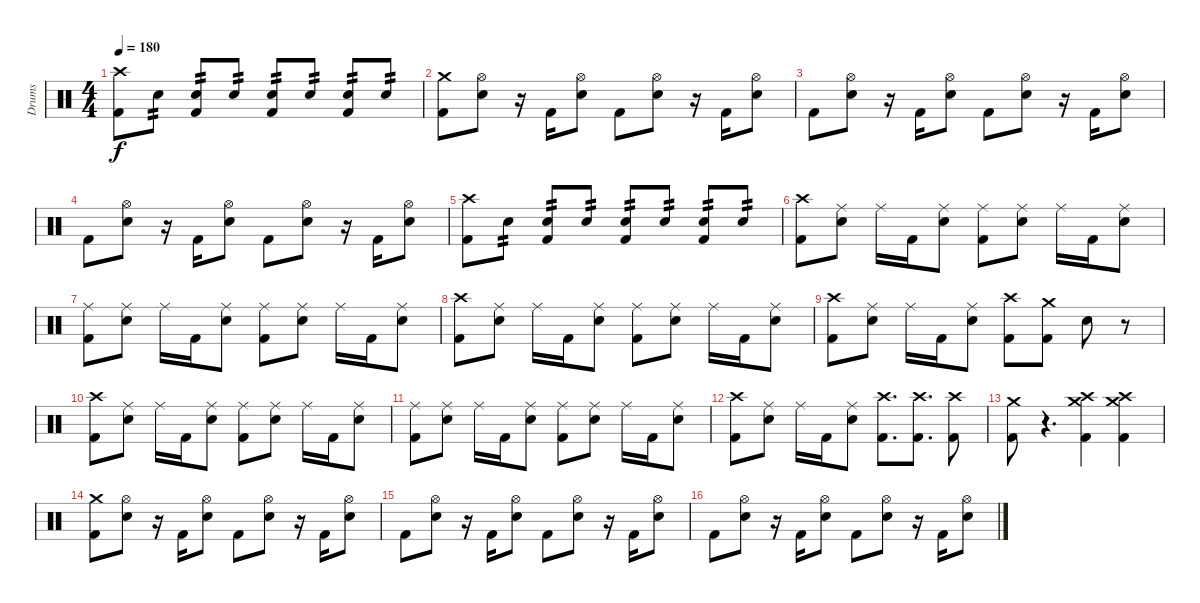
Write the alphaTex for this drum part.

\track ("Drums" "Drums") {instrument percussion}
\staff {score}
\articulation defaults
\ts (4 4)
\tempo 180
\clef neutral
\ks c
("Crash high (hit)" "Kick (hit) 2").8{dy f} "Electric Snare (hit)".8{tp 2} ("Electric Snare (hit)" "Kick (hit) 2").8{tp 2} "Electric Snare (hit)".8{tp 2} ("Electric Snare (hit)" "Kick (hit) 2").8{tp 2} "Electric Snare (hit)".8{tp 2} ("Electric Snare (hit)" "Kick (hit) 2").8{tp 2} "Electric Snare (hit)".8{tp 2} |
("Crash medium (hit)" "Kick (hit) 2").8 ("Hi-Hat (open)" "Electric Snare (hit)").8 r.16 "Kick (hit) 2".16 ("Hi-Hat (open)" "Electric Snare (hit)").8 "Kick (hit) 2".8 ("Hi-Hat (open)" "Electric Snare (hit)").8 r.16 "Kick (hit) 2".16 ("Hi-Hat (open)" "Electric Snare (hit)").8 |
"Kick (hit) 2".8 ("Hi-Hat (open)" "Electric Snare (hit)").8 r.16 "Kick (hit) 2".16 ("Hi-Hat (open)" "Electric Snare (hit)").8 "Kick (hit) 2".8 ("Hi-Hat (open)" "Electric Snare (hit)").8 r.16 "Kick (hit) 2".16 ("Hi-Hat (open)" "Electric Snare (hit)").8 |
"Kick (hit) 2".8 ("Hi-Hat (open)" "Electric Snare (hit)").8 r.16 "Kick (hit) 2".16 ("Hi-Hat (open)" "Electric Snare (hit)").8 "Kick (hit) 2".8 ("Hi-Hat (open)" "Electric Snare (hit)").8 r.16 "Kick (hit) 2".16 ("Hi-Hat (open)" "Electric Snare (hit)").8 |
("Crash high (hit)" "Kick (hit) 2").8 "Electric Snare (hit)".8{tp 2} ("Electric Snare (hit)" "Kick (hit) 2").8{tp 2} "Electric Snare (hit)".8{tp 2} ("Electric Snare (hit)" "Kick (hit) 2").8{tp 2} "Electric Snare (hit)".8{tp 2} ("Electric Snare (hit)" "Kick (hit) 2").8{tp 2} "Electric Snare (hit)".8{tp 2} |
("Crash high (hit)" "Kick (hit) 2").8 ("Ride (middle)" "Electric Snare (hit)").8 "Ride (middle)".16 "Kick (hit) 2".16 ("Ride (middle)" "Electric Snare (hit)").8 ("Ride (middle)" "Kick (hit) 2").8 ("Ride (middle)" "Electric Snare (hit)").8 "Ride (middle)".16 "Kick (hit) 2".16 ("Ride (middle)" "Electric Snare (hit)").8 |
("Ride (middle)" "Kick (hit) 2").8 ("Ride (middle)" "Electric Snare (hit)").8 "Ride (middle)".16 "Kick (hit) 2".16 ("Ride (middle)" "Electric Snare (hit)").8 ("Ride (middle)" "Kick (hit) 2").8 ("Ride (middle)" "Electric Snare (hit)").8 "Ride (middle)".16 "Kick (hit) 2".16 ("Ride (middle)" "Electric Snare (hit)").8 |
("Crash high (hit)" "Kick (hit) 2").8 ("Ride (middle)" "Electric Snare (hit)").8 "Ride (middle)".16 "Kick (hit) 2".16 ("Ride (middle)" "Electric Snare (hit)").8 ("Ride (middle)" "Kick (hit) 2").8 ("Ride (middle)" "Electric Snare (hit)").8 "Ride (middle)".16 "Kick (hit) 2".16 ("Ride (middle)" "Electric Snare (hit)").8 |
("Crash high (hit)" "Kick (hit) 2").8 ("Ride (middle)" "Electric Snare (hit)").8 "Ride (middle)".16 "Kick (hit) 2".16 ("Ride (middle)" "Electric Snare (hit)").8 ("Crash high (hit)" "Kick (hit) 2").8 ("Crash medium (hit)" "Kick (hit) 2").8 "Electric Snare (hit)".8 r.8 |
("Crash high (hit)" "Kick (hit) 2").8 ("Ride (middle)" "Electric Snare (hit)").8 "Ride (middle)".16 "Kick (hit) 2".16 ("Ride (middle)" "Electric Snare (hit)").8 ("Ride (middle)" "Kick (hit) 2").8 ("Ride (middle)" "Electric Snare (hit)").8 "Ride (middle)".16 "Kick (hit) 2".16 ("Ride (middle)" "Electric Snare (hit)").8 |
("Ride (middle)" "Kick (hit) 2").8 ("Ride (middle)" "Electric Snare (hit)").8 "Ride (middle)".16 "Kick (hit) 2".16 ("Ride (middle)" "Electric Snare (hit)").8 ("Ride (middle)" "Kick (hit) 2").8 ("Ride (middle)" "Electric Snare (hit)").8 "Ride (middle)".16 "Kick (hit) 2".16 ("Ride (middle)" "Electric Snare (hit)").8 |
("Crash high (hit)" "Kick (hit) 2").8 ("Ride (middle)" "Electric Snare (hit)").8 "Ride (middle)".16 "Kick (hit) 2".16 ("Ride (middle)" "Electric Snare (hit)").8 ("Crash high (hit)" "Kick (hit) 2").8{d} ("Crash high (hit)" "Kick (hit) 2").8{d} ("Crash high (hit)" "Kick (hit) 2").8 |
("Crash medium (hit)" "Kick (hit) 2").8 r.4{d} ("Crash high (hit)" "Crash medium (hit)" "Kick (hit) 2").4 ("Crash high (hit)" "Crash medium (hit)" "Kick (hit) 2").4 |
("Crash medium (hit)" "Kick (hit) 2").8 ("Hi-Hat (open)" "Electric Snare (hit)").8 r.16 "Kick (hit) 2".16 ("Hi-Hat (open)" "Electric Snare (hit)").8 "Kick (hit) 2".8 ("Hi-Hat (open)" "Electric Snare (hit)").8 r.16 "Kick (hit) 2".16 ("Hi-Hat (open)" "Electric Snare (hit)").8 |
"Kick (hit) 2".8 ("Hi-Hat (open)" "Electric Snare (hit)").8 r.16 "Kick (hit) 2".16 ("Hi-Hat (open)" "Electric Snare (hit)").8 "Kick (hit) 2".8 ("Hi-Hat (open)" "Electric Snare (hit)").8 r.16 "Kick (hit) 2".16 ("Hi-Hat (open)" "Electric Snare (hit)").8 |
"Kick (hit) 2".8 ("Hi-Hat (open)" "Electric Snare (hit)").8 r.16 "Kick (hit) 2".16 ("Hi-Hat (open)" "Electric Snare (hit)").8 "Kick (hit) 2".8 ("Hi-Hat (open)" "Electric Snare (hit)").8 r.16 "Kick (hit) 2".16 ("Hi-Hat (open)" "Electric Snare (hit)").8
